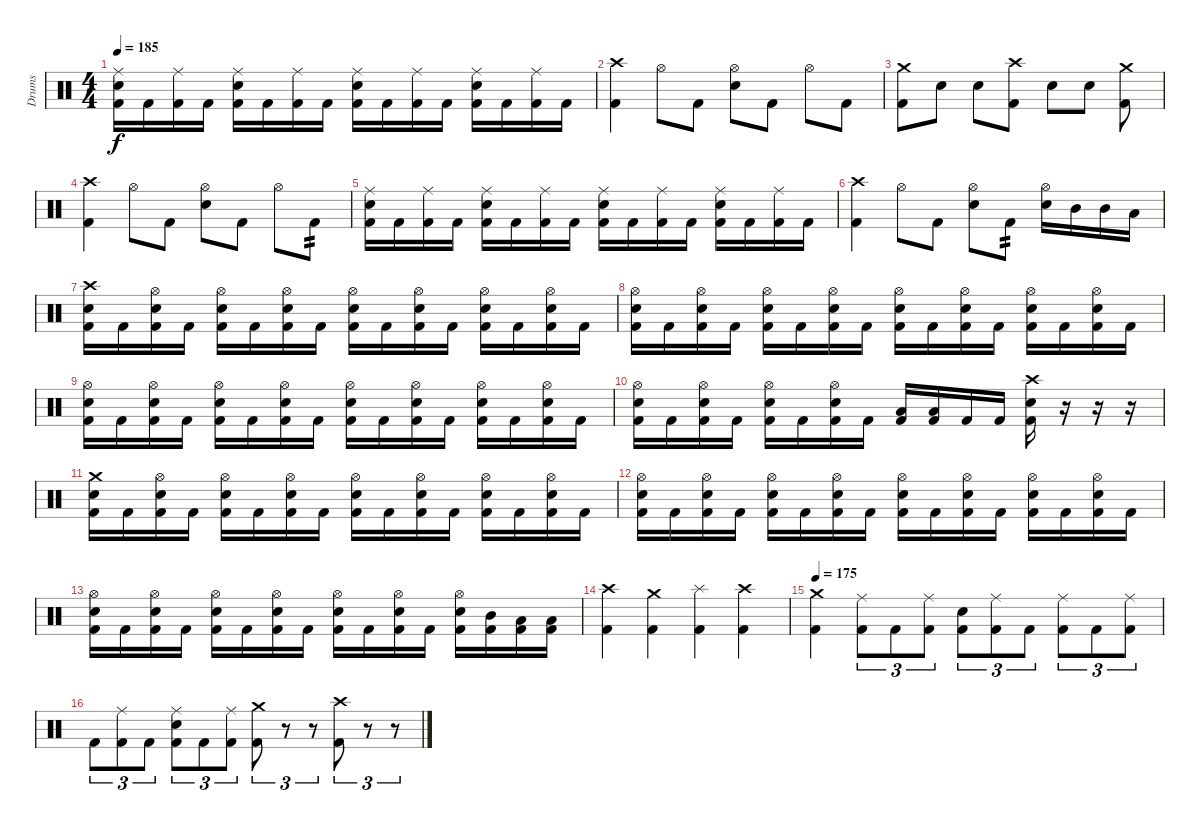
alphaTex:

\track ("Drums" "Drums") {instrument percussion}
\staff {score}
\articulation defaults
\ts (4 4)
\tempo 185
\clef neutral
\ks c
("Ride (middle)" "Electric Snare (hit)" "Kick (hit) 2").16{dy f} "Kick (hit) 2".16 ("Ride (middle)" "Kick (hit) 2").16 "Kick (hit) 2".16 ("Ride (middle)" "Electric Snare (hit)" "Kick (hit) 2").16 "Kick (hit) 2".16 ("Ride (middle)" "Kick (hit) 2").16 "Kick (hit) 2".16 ("Ride (middle)" "Electric Snare (hit)" "Kick (hit) 2").16 "Kick (hit) 2".16 ("Ride (middle)" "Kick (hit) 2").16 "Kick (hit) 2".16 ("Ride (middle)" "Electric Snare (hit)" "Kick (hit) 2").16 "Kick (hit) 2".16 ("Ride (middle)" "Kick (hit) 2").16 "Kick (hit) 2".16 |
("Crash high (hit)" "Kick (hit) 2").4 "Hi-Hat (open)".8 "Kick (hit) 2".8 ("Hi-Hat (open)" "Electric Snare (hit)").8 "Kick (hit) 2".8 "Hi-Hat (open)".8 "Kick (hit) 2".8 |
("Crash medium (hit)" "Kick (hit) 2").8 "Electric Snare (hit)".8 "Electric Snare (hit)".8 ("Crash high (hit)" "Kick (hit) 2").8 "Electric Snare (hit)".8 "Electric Snare (hit)".8 ("Crash medium (hit)" "Kick (hit) 2").8 |
("Crash high (hit)" "Kick (hit) 2").4 "Hi-Hat (open)".8 "Kick (hit) 2".8 ("Hi-Hat (open)" "Electric Snare (hit)").8 "Kick (hit) 2".8 "Hi-Hat (open)".8 "Kick (hit) 2".8{tp 2} |
("Ride (middle)" "Electric Snare (hit)" "Kick (hit) 2").16 "Kick (hit) 2".16 ("Ride (middle)" "Kick (hit) 2").16 "Kick (hit) 2".16 ("Ride (middle)" "Electric Snare (hit)" "Kick (hit) 2").16 "Kick (hit) 2".16 ("Ride (middle)" "Kick (hit) 2").16 "Kick (hit) 2".16 ("Ride (middle)" "Electric Snare (hit)" "Kick (hit) 2").16 "Kick (hit) 2".16 ("Ride (middle)" "Kick (hit) 2").16 "Kick (hit) 2".16 ("Ride (middle)" "Electric Snare (hit)" "Kick (hit) 2").16 "Kick (hit) 2".16 ("Ride (middle)" "Kick (hit) 2").16 "Kick (hit) 2".16 |
("Crash high (hit)" "Kick (hit) 2").4 "Hi-Hat (open)".8 "Kick (hit) 2".8 ("Hi-Hat (open)" "Electric Snare (hit)").8 "Kick (hit) 2".8{tp 2} ("Hi-Hat (open)" "Electric Snare (hit)").16 "Mid Tom (hit)".16 "Mid Tom (hit)".16 "Low Tom (hit)".16 |
("Crash high (hit)" "Electric Snare (hit)" "Kick (hit) 2").16 "Kick (hit) 2".16 ("Hi-Hat (open)" "Electric Snare (hit)" "Kick (hit) 2").16 "Kick (hit) 2".16 ("Hi-Hat (open)" "Electric Snare (hit)" "Kick (hit) 2").16 "Kick (hit) 2".16 ("Hi-Hat (open)" "Electric Snare (hit)" "Kick (hit) 2").16 "Kick (hit) 2".16 ("Hi-Hat (open)" "Electric Snare (hit)" "Kick (hit) 2").16 "Kick (hit) 2".16 ("Hi-Hat (open)" "Electric Snare (hit)" "Kick (hit) 2").16 "Kick (hit) 2".16 ("Hi-Hat (open)" "Electric Snare (hit)" "Kick (hit) 2").16 "Kick (hit) 2".16 ("Hi-Hat (open)" "Electric Snare (hit)" "Kick (hit) 2").16 "Kick (hit) 2".16 |
("Hi-Hat (open)" "Electric Snare (hit)" "Kick (hit) 2").16 "Kick (hit) 2".16 ("Hi-Hat (open)" "Electric Snare (hit)" "Kick (hit) 2").16 "Kick (hit) 2".16 ("Hi-Hat (open)" "Electric Snare (hit)" "Kick (hit) 2").16 "Kick (hit) 2".16 ("Hi-Hat (open)" "Electric Snare (hit)" "Kick (hit) 2").16 "Kick (hit) 2".16 ("Hi-Hat (open)" "Electric Snare (hit)" "Kick (hit) 2").16 "Kick (hit) 2".16 ("Hi-Hat (open)" "Electric Snare (hit)" "Kick (hit) 2").16 "Kick (hit) 2".16 ("Hi-Hat (open)" "Electric Snare (hit)" "Kick (hit) 2").16 "Kick (hit) 2".16 ("Hi-Hat (open)" "Electric Snare (hit)" "Kick (hit) 2").16 "Kick (hit) 2".16 |
("Hi-Hat (open)" "Electric Snare (hit)" "Kick (hit) 2").16 "Kick (hit) 2".16 ("Hi-Hat (open)" "Electric Snare (hit)" "Kick (hit) 2").16 "Kick (hit) 2".16 ("Hi-Hat (open)" "Electric Snare (hit)" "Kick (hit) 2").16 "Kick (hit) 2".16 ("Hi-Hat (open)" "Electric Snare (hit)" "Kick (hit) 2").16 "Kick (hit) 2".16 ("Hi-Hat (open)" "Electric Snare (hit)" "Kick (hit) 2").16 "Kick (hit) 2".16 ("Hi-Hat (open)" "Electric Snare (hit)" "Kick (hit) 2").16 "Kick (hit) 2".16 ("Hi-Hat (open)" "Electric Snare (hit)" "Kick (hit) 2").16 "Kick (hit) 2".16 ("Hi-Hat (open)" "Electric Snare (hit)" "Kick (hit) 2").16 "Kick (hit) 2".16 |
("Hi-Hat (open)" "Electric Snare (hit)" "Kick (hit) 2").16 "Kick (hit) 2".16 ("Hi-Hat (open)" "Electric Snare (hit)" "Kick (hit) 2").16 "Kick (hit) 2".16 ("Hi-Hat (open)" "Electric Snare (hit)" "Kick (hit) 2").16 "Kick (hit) 2".16 ("Hi-Hat (open)" "Electric Snare (hit)" "Kick (hit) 2").16 "Kick (hit) 2".16 ("Low Tom (hit)" "Kick (hit) 2").16 ("Low Tom (hit)" "Kick (hit) 2").16 "Kick (hit) 2".16 "Kick (hit) 2".16 ("Crash high (hit)" "Electric Snare (hit)" "Kick (hit) 2").16 r.16 r.16 r.16 |
("Crash medium (hit)" "Electric Snare (hit)" "Kick (hit) 2").16 "Kick (hit) 2".16 ("Hi-Hat (open)" "Electric Snare (hit)" "Kick (hit) 2").16 "Kick (hit) 2".16 ("Hi-Hat (open)" "Electric Snare (hit)" "Kick (hit) 2").16 "Kick (hit) 2".16 ("Hi-Hat (open)" "Electric Snare (hit)" "Kick (hit) 2").16 "Kick (hit) 2".16 ("Hi-Hat (open)" "Electric Snare (hit)" "Kick (hit) 2").16 "Kick (hit) 2".16 ("Hi-Hat (open)" "Electric Snare (hit)" "Kick (hit) 2").16 "Kick (hit) 2".16 ("Hi-Hat (open)" "Electric Snare (hit)" "Kick (hit) 2").16 "Kick (hit) 2".16 ("Hi-Hat (open)" "Electric Snare (hit)" "Kick (hit) 2").16 "Kick (hit) 2".16 |
("Hi-Hat (open)" "Electric Snare (hit)" "Kick (hit) 2").16 "Kick (hit) 2".16 ("Hi-Hat (open)" "Electric Snare (hit)" "Kick (hit) 2").16 "Kick (hit) 2".16 ("Hi-Hat (open)" "Electric Snare (hit)" "Kick (hit) 2").16 "Kick (hit) 2".16 ("Hi-Hat (open)" "Electric Snare (hit)" "Kick (hit) 2").16 "Kick (hit) 2".16 ("Hi-Hat (open)" "Electric Snare (hit)" "Kick (hit) 2").16 "Kick (hit) 2".16 ("Hi-Hat (open)" "Electric Snare (hit)" "Kick (hit) 2").16 "Kick (hit) 2".16 ("Hi-Hat (open)" "Electric Snare (hit)" "Kick (hit) 2").16 "Kick (hit) 2".16 ("Hi-Hat (open)" "Electric Snare (hit)" "Kick (hit) 2").16 "Kick (hit) 2".16 |
("Hi-Hat (open)" "Electric Snare (hit)" "Kick (hit) 2").16 "Kick (hit) 2".16 ("Hi-Hat (open)" "Electric Snare (hit)" "Kick (hit) 2").16 "Kick (hit) 2".16 ("Hi-Hat (open)" "Electric Snare (hit)" "Kick (hit) 2").16 "Kick (hit) 2".16 ("Hi-Hat (open)" "Electric Snare (hit)" "Kick (hit) 2").16 "Kick (hit) 2".16 ("Hi-Hat (open)" "Electric Snare (hit)" "Kick (hit) 2").16 "Kick (hit) 2".16 ("Hi-Hat (open)" "Electric Snare (hit)" "Kick (hit) 2").16 "Kick (hit) 2".16 ("Hi-Hat (open)" "Electric Snare (hit)" "Kick (hit) 2").16 ("Mid Tom (hit)" "Kick (hit) 2").16 ("Low Tom (hit)" "Kick (hit) 2").16 ("Low Tom (hit)" "Kick (hit) 2").16 |
("Crash high (hit)" "Kick (hit) 2").4 ("Crash medium (hit)" "Kick (hit) 2").4 ("Splash (hit)" "Kick (hit) 2").4 ("Crash high (hit)" "Kick (hit) 2").4 |
\tempo 175
("Crash medium (hit)" "Kick (hit) 2").4 ("Ride (middle)" "Kick (hit) 2").8{tu (3 2)} "Kick (hit) 2".8{tu (3 2)} ("Ride (middle)" "Kick (hit) 2").8{tu (3 2)} ("Electric Snare (hit)" "Kick (hit) 2").8{tu (3 2)} ("Ride (middle)" "Kick (hit) 2").8{tu (3 2)} "Kick (hit) 2".8{tu (3 2)} ("Ride (middle)" "Kick (hit) 2").8{tu (3 2)} "Kick (hit) 2".8{tu (3 2)} ("Ride (middle)" "Kick (hit) 2").8{tu (3 2)} |
"Kick (hit) 2".8{tu (3 2)} ("Ride (middle)" "Kick (hit) 2").8{tu (3 2)} "Kick (hit) 2".8{tu (3 2)} ("Ride (middle)" "Electric Snare (hit)" "Kick (hit) 2").8{tu (3 2)} "Kick (hit) 2".8{tu (3 2)} ("Ride (middle)" "Kick (hit) 2").8{tu (3 2)} ("Crash medium (hit)" "Kick (hit) 2").8{tu (3 2)} r.8{tu (3 2)} r.8{tu (3 2)} ("Crash high (hit)" "Kick (hit) 2").8{tu (3 2)} r.8{tu (3 2)} r.8{tu (3 2)}
